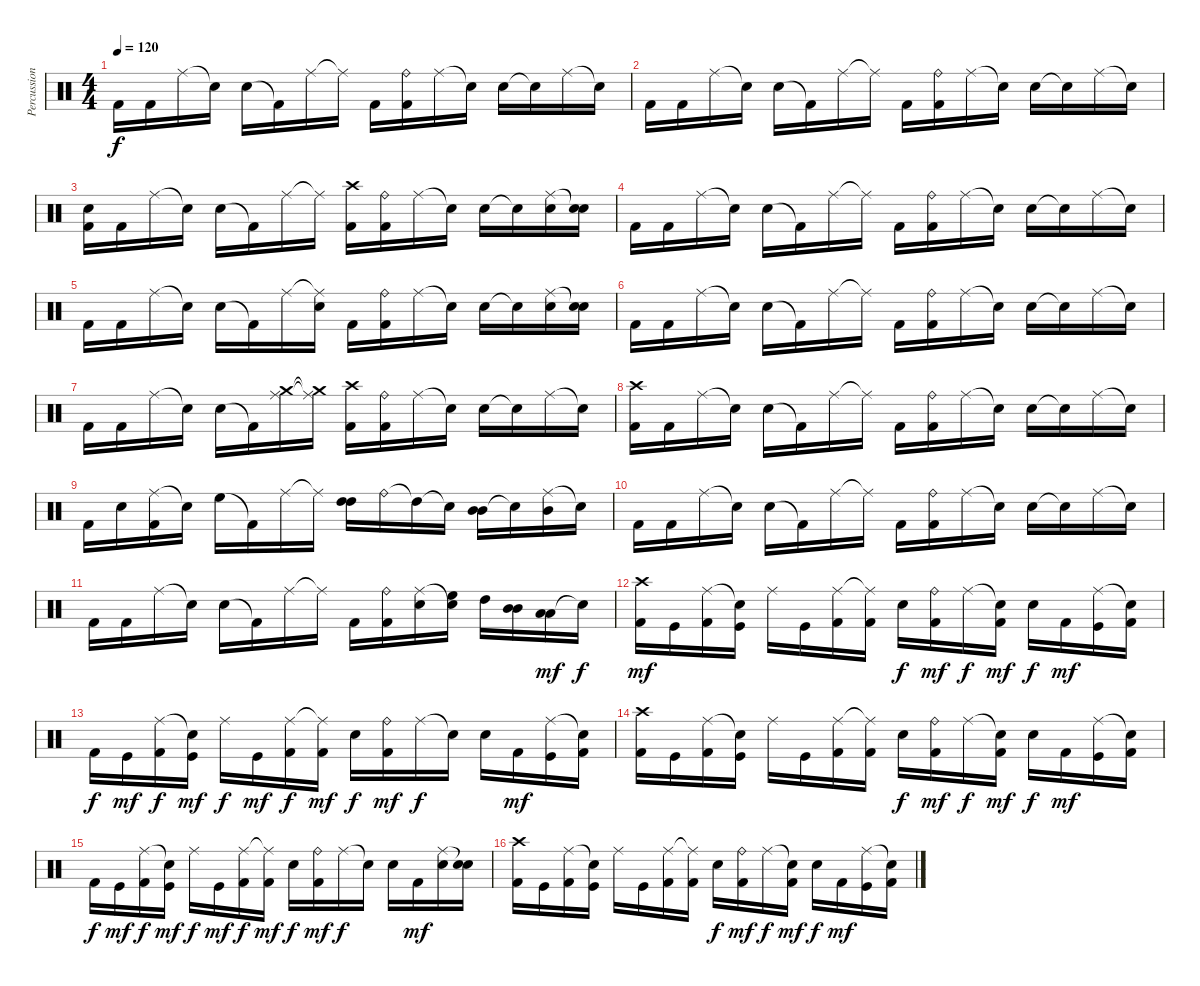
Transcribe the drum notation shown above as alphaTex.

\track ("Percussioni" "Percussion") {instrument percussion}
\staff {score}
\articulation defaults
\ts (4 4)
\tempo 120
\clef neutral
\ks c "Kick (hit) 2".16{dy f} "Kick (hit) 2".16 "Ride (middle)".16 "Snare (hit)"{t}.16 "Electric Snare (hit)".16 "Kick (hit) 2"{t}.16 "Ride (middle)".16 "Ride (middle)"{t}.16 "Kick (hit) 2".16
("Ride (bell)" "Kick (hit) 2").16 "Ride (middle)".16 "Snare (hit)"{t}.16 "Electric Snare (hit)".16 "Snare (hit)"{t}.16 "Ride (middle)".16 "Snare (hit)"{t}.16 |
"Kick (hit) 2".16 "Kick (hit) 2".16 "Ride (middle)".16 "Snare (hit)"{t}.16 "Electric Snare (hit)".16 "Kick (hit) 2"{t}.16 "Ride (middle)".16 "Ride (middle)"{t}.16 "Kick (hit) 2".16 ("Ride (bell)" "Kick (hit) 2").16 "Ride (middle)".16 "Snare (hit)"{t}.16 "Electric Snare (hit)".16 "Snare (hit)"{t}.16 "Ride (middle)".16 "Snare (hit)"{t}.16 |
("Electric Snare (hit)" "Kick (hit) 2").16 "Kick (hit) 2".16 "Ride (middle)".16 "Snare (hit)"{t}.16 "Electric Snare (hit)".16 "Kick (hit) 2"{t}.16 "Ride (middle)".16 "Ride (middle)"{t}.16 ("Crash high (hit)" "Kick (hit) 2").16 ("Ride (bell)" "Kick (hit) 2").16 "Ride (middle)".16 "Snare (hit)"{t}.16 "Electric Snare (hit)".16 "Snare (hit)"{t}.16 ("Ride (middle)" "Electric Snare (hit)").16 ("Snare (hit)"{t} "Electric Snare (hit)").16 |
"Kick (hit) 2".16 "Kick (hit) 2".16 "Ride (middle)".16 "Snare (hit)"{t}.16 "Electric Snare (hit)".16 "Kick (hit) 2"{t}.16 "Ride (middle)".16 "Ride (middle)"{t}.16 "Kick (hit) 2".16 ("Ride (bell)" "Kick (hit) 2").16 "Ride (middle)".16 "Snare (hit)"{t}.16 "Electric Snare (hit)".16 "Snare (hit)"{t}.16 "Ride (middle)".16 "Snare (hit)"{t}.16 |
"Kick (hit) 2".16 "Kick (hit) 2".16 "Ride (middle)".16 "Snare (hit)"{t}.16 "Electric Snare (hit)".16 "Kick (hit) 2"{t}.16 "Ride (middle)".16 ("Ride (middle)"{t} "Electric Snare (hit)").16 "Kick (hit) 2".16 ("Ride (bell)" "Kick (hit) 2").16 "Ride (middle)".16 "Snare (hit)"{t}.16 "Electric Snare (hit)".16 "Snare (hit)"{t}.16 ("Ride (middle)" "Electric Snare (hit)").16 ("Snare (hit)"{t} "Electric Snare (hit)").16 |
"Kick (hit) 2".16 "Kick (hit) 2".16 "Ride (middle)".16 "Snare (hit)"{t}.16 "Electric Snare (hit)".16 "Kick (hit) 2"{t}.16 "Ride (middle)".16 "Ride (middle)"{t}.16 "Kick (hit) 2".16 ("Ride (bell)" "Kick (hit) 2").16 "Ride (middle)".16 "Snare (hit)"{t}.16 "Electric Snare (hit)".16 "Snare (hit)"{t}.16 "Ride (middle)".16 "Snare (hit)"{t}.16 |
"Kick (hit) 2".16 "Kick (hit) 2".16 "Ride (middle)".16 "Snare (hit)"{t}.16 "Electric Snare (hit)".16 "Kick (hit) 2"{t}.16 ("Crash medium (hit)" "Ride (middle)").16 ("Crash medium (hit)"{t} "Ride (middle)"{t}).16 ("Crash high (hit)" "Kick (hit) 2").16 ("Ride (bell)" "Kick (hit) 2").16 "Ride (middle)".16 "Snare (hit)"{t}.16 "Electric Snare (hit)".16 "Snare (hit)"{t}.16 "Ride (middle)".16 "Snare (hit)"{t}.16 |
("Crash high (hit)" "Kick (hit) 2").16 "Kick (hit) 2".16 "Ride (middle)".16 "Snare (hit)"{t}.16 "Electric Snare (hit)".16 "Kick (hit) 2"{t}.16 "Ride (middle)".16 "Ride (middle)"{t}.16 "Kick (hit) 2".16 ("Ride (bell)" "Kick (hit) 2").16 "Ride (middle)".16 "Snare (hit)"{t}.16 "Electric Snare (hit)".16 "Snare (hit)"{t}.16 "Ride (middle)".16 "Snare (hit)"{t}.16 |
"Kick (hit) 2".16 "Electric Snare (hit)".16 ("Ride (middle)" "Kick (hit) 2").16 "Snare (hit)"{t}.16 "High Floor Tom (hit)".16 "Kick (hit) 2"{t}.16 "Ride (middle)".16 "Ride (middle)"{t}.16 ("High Tom (hit)" "High Tom (hit)").16 "Ride (bell)".16 "High Tom (hit)"{t}.16 "Snare (hit)"{t}.16 ("Mid Tom (hit)" "Mid Tom (hit)").16 "Electric Snare (hit)"{t}.16 ("Ride (middle)" "Mid Tom (hit)").16 "Snare (hit)"{t}.16 |
"Kick (hit) 2".16 "Kick (hit) 2".16 "Ride (middle)".16 "Snare (hit)"{t}.16 "Electric Snare (hit)".16 "Kick (hit) 2"{t}.16 "Ride (middle)".16 "Ride (middle)"{t}.16 "Kick (hit) 2".16 ("Ride (bell)" "Kick (hit) 2").16 "Ride (middle)".16 "Snare (hit)"{t}.16 "Electric Snare (hit)".16 "Snare (hit)"{t}.16 "Ride (middle)".16 "Snare (hit)"{t}.16 |
"Kick (hit) 2".16 "Kick (hit) 2".16 "Ride (middle)".16 "Snare (hit)"{t}.16 "Electric Snare (hit)".16 "Kick (hit) 2"{t}.16 "Ride (middle)".16 "Ride (middle)"{t}.16 "Kick (hit) 2".16 ("Ride (bell)" "Kick (hit) 2").16 ("Ride (middle)" "Electric Snare (hit)").16 ("Snare (hit)"{t} "High Floor Tom (hit)").16 "High Tom (hit)".16 ("Mid Tom (hit)" "Mid Tom (hit)").16 ("Low Tom (hit)" "Low Tom (hit)").16{dy mf} "Snare (hit)"{t}.16{dy f} |
("Crash high (hit)" "Kick (hit) 2").16{dy mf} "Kick (hit)".16 ("Ride (middle)" "Kick (hit) 2").16 ("Snare (hit)"{t} "Kick (hit)").16 "Ride (middle)".16 "Kick (hit)".16 ("Ride (middle)" "Kick (hit) 2").16 ("Ride (middle)"{t} "Kick (hit) 2").16 "Electric Snare (hit)".16{dy f} ("Ride (bell)" "Kick (hit) 2").16{dy mf} "Ride (middle)".16{dy f} ("Snare (hit)"{t} "Kick (hit) 2").16{dy mf} "Electric Snare (hit)".16{dy f} "Kick (hit) 2".16{dy mf} ("Ride (middle)" "Kick (hit)").16 ("Snare (hit)"{t} "Kick (hit) 2").16 |
"Kick (hit) 2".16{dy f} "Kick (hit)".16{dy mf} ("Ride (middle)" "Kick (hit) 2").16{dy f} ("Snare (hit)"{t} "Kick (hit)").16{dy mf} "Ride (middle)".16{dy f} "Kick (hit)".16{dy mf} ("Ride (middle)" "Kick (hit) 2").16{dy f} ("Ride (middle)"{t} "Kick (hit) 2").16{dy mf} "Electric Snare (hit)".16{dy f} ("Ride (bell)" "Kick (hit) 2").16{dy mf} "Ride (middle)".16{dy f} "Snare (hit)"{t}.16 "Electric Snare (hit)".16 "Kick (hit) 2".16{dy mf} ("Ride (middle)" "Kick (hit)").16 ("Snare (hit)"{t} "Kick (hit) 2").16 |
("Crash high (hit)" "Kick (hit) 2").16 "Kick (hit)".16 ("Ride (middle)" "Kick (hit) 2").16 ("Snare (hit)"{t} "Kick (hit)").16 "Ride (middle)".16 "Kick (hit)".16 ("Ride (middle)" "Kick (hit) 2").16 ("Ride (middle)"{t} "Kick (hit) 2").16 "Electric Snare (hit)".16{dy f} ("Ride (bell)" "Kick (hit) 2").16{dy mf} "Ride (middle)".16{dy f} ("Snare (hit)"{t} "Kick (hit) 2").16{dy mf} "Electric Snare (hit)".16{dy f} "Kick (hit) 2".16{dy mf} ("Ride (middle)" "Kick (hit)").16 ("Snare (hit)"{t} "Kick (hit) 2").16 |
"Kick (hit) 2".16{dy f} "Kick (hit)".16{dy mf} ("Ride (middle)" "Kick (hit) 2").16{dy f} ("Snare (hit)"{t} "Kick (hit)").16{dy mf} "Ride (middle)".16{dy f} "Kick (hit)".16{dy mf} ("Ride (middle)" "Kick (hit) 2").16{dy f} ("Ride (middle)"{t} "Kick (hit) 2").16{dy mf} "Electric Snare (hit)".16{dy f} ("Ride (bell)" "Kick (hit) 2").16{dy mf} "Ride (middle)".16{dy f} "Snare (hit)"{t}.16 "Electric Snare (hit)".16 "Kick (hit) 2".16{dy mf} ("Ride (middle)" "Electric Snare (hit)").16 ("Snare (hit)"{t} "Electric Snare (hit)").16 |
("Crash high (hit)" "Kick (hit) 2").16 "Kick (hit)".16 ("Ride (middle)" "Kick (hit) 2").16 ("Snare (hit)"{t} "Kick (hit)").16 "Ride (middle)".16 "Kick (hit)".16 ("Ride (middle)" "Kick (hit) 2").16 ("Ride (middle)"{t} "Kick (hit) 2").16 "Electric Snare (hit)".16{dy f} ("Ride (bell)" "Kick (hit) 2").16{dy mf} "Ride (middle)".16{dy f} ("Snare (hit)"{t} "Kick (hit) 2").16{dy mf} "Electric Snare (hit)".16{dy f} "Kick (hit) 2".16{dy mf} ("Ride (middle)" "Kick (hit)").16 ("Snare (hit)"{t} "Kick (hit) 2").16
